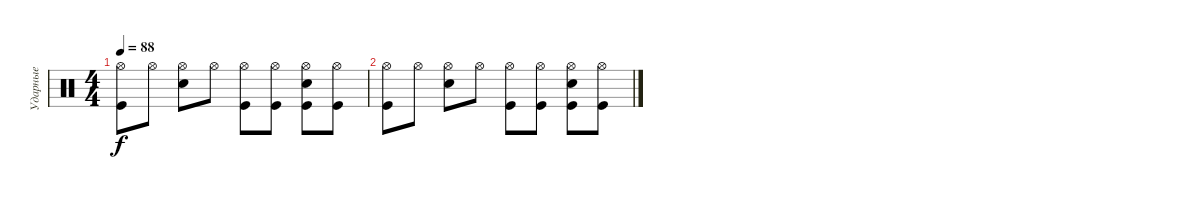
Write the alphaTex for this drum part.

\track ("Ударные" "Ударные") {instrument percussion}
\staff {score}
\articulation defaults
\ts (4 4)
\tempo 88
\clef neutral
\ks c
("Hi-Hat (open)" "Kick (hit)").8{dy f} "Hi-Hat (open)".8 ("Hi-Hat (open)" "Snare (hit) 2").8 "Hi-Hat (open)".8 ("Hi-Hat (open)" "Kick (hit)").8 ("Hi-Hat (open)" "Kick (hit)").8 ("Hi-Hat (open)" "Snare (hit) 2" "Kick (hit)").8 ("Hi-Hat (open)" "Kick (hit)").8 |
("Hi-Hat (open)" "Kick (hit)").8 "Hi-Hat (open)".8 ("Hi-Hat (open)" "Snare (hit) 2").8 "Hi-Hat (open)".8 ("Hi-Hat (open)" "Kick (hit)").8 ("Hi-Hat (open)" "Kick (hit)").8 ("Hi-Hat (open)" "Snare (hit) 2" "Kick (hit)").8 ("Hi-Hat (open)" "Kick (hit)").8
